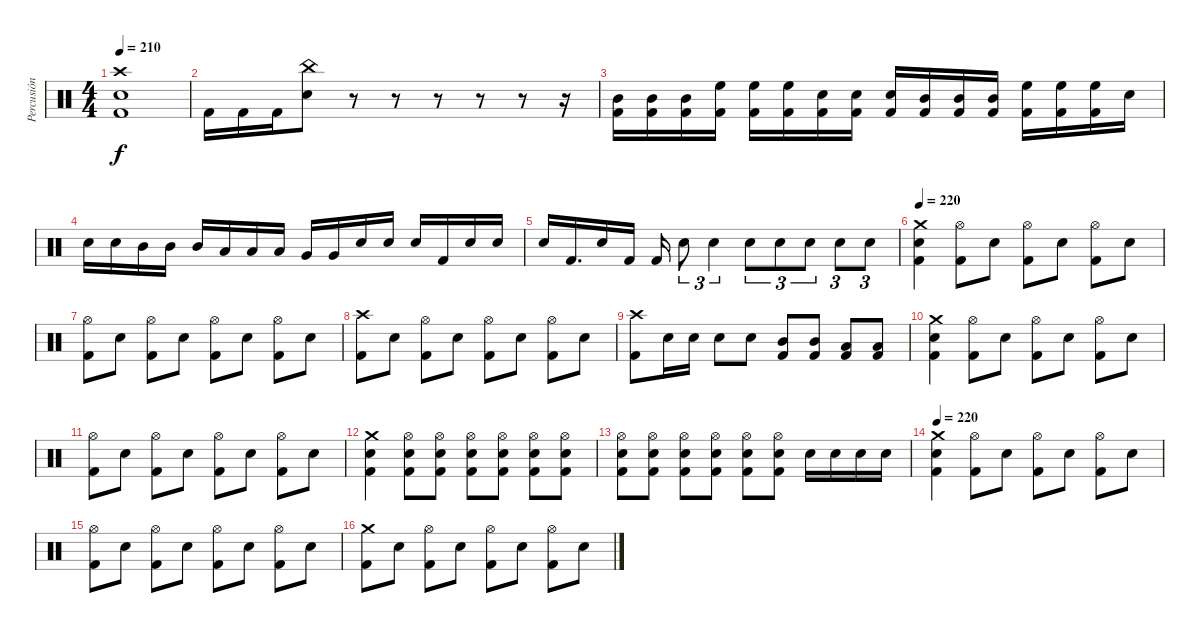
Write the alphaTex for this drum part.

\track ("Percusión" "Percusión") {instrument percussion}
\staff {score}
\articulation defaults
\ts (4 4)
\tempo 210
\clef neutral
\ks c
("Crash high (hit)" "Electric Snare (hit)" "Kick (hit) 2").1{dy f} |
"Kick (hit) 2".16 "Kick (hit) 2".16 "Kick (hit) 2".16 ("China (hit)" "Electric Snare (hit)").8 r.8 r.8 r.8 r.8 r.8 r.16 |
("Mid Tom (hit)" "Kick (hit) 2").16 ("Mid Tom (hit)" "Kick (hit) 2").16 ("Mid Tom (hit)" "Kick (hit) 2").16 ("High Floor Tom (hit)" "Kick (hit) 2").16 ("High Floor Tom (hit)" "Kick (hit) 2").16 ("High Floor Tom (hit)" "Kick (hit) 2").16 ("Electric Snare (hit)" "Kick (hit) 2").16 ("Electric Snare (hit)" "Kick (hit) 2").16 ("Electric Snare (hit)" "Kick (hit) 2").16 ("Mid Tom (hit)" "Kick (hit) 2").16 ("Mid Tom (hit)" "Kick (hit) 2").16 ("Mid Tom (hit)" "Kick (hit) 2").16 ("High Floor Tom (hit)" "Kick (hit) 2").16 ("High Floor Tom (hit)" "Kick (hit) 2").16 ("High Floor Tom (hit)" "Kick (hit) 2").16 "Electric Snare (hit)".16 |
"Electric Snare (hit)".16 "Electric Snare (hit)".16 "Mid Tom (hit)".16 "Mid Tom (hit)".16 "Mid Tom (hit)".16 "Low Tom (hit)".16 "Low Tom (hit)".16 "Low Tom (hit)".16 "Very Low Tom (hit)".16 "Very Low Tom (hit)".16 "Electric Snare (hit)".16 "Electric Snare (hit)".16 "Electric Snare (hit)".16 "Kick (hit) 2".16 "Electric Snare (hit)".16 "Electric Snare (hit)".16 |
"Electric Snare (hit)".16 "Kick (hit) 2".16{d} "Electric Snare (hit)".16 "Kick (hit) 2".16 "Kick (hit) 2".16 "Electric Snare (hit)".8{tu (3 2)} "Electric Snare (hit)".4{tu (3 2)} "Electric Snare (hit)".8{tu (3 2)} "Electric Snare (hit)".8{tu (3 2)} "Electric Snare (hit)".8{tu (3 2)} "Electric Snare (hit)".8{tu (3 2)} "Electric Snare (hit)".8{tu (3 2)} |
\tempo 220
("Crash medium (hit)" "Electric Snare (hit)" "Kick (hit) 2").4 ("Hi-Hat (open)" "Kick (hit) 2").8 "Electric Snare (hit)".8 ("Hi-Hat (open)" "Kick (hit) 2").8 "Electric Snare (hit)".8 ("Hi-Hat (open)" "Kick (hit) 2").8 "Electric Snare (hit)".8 |
("Hi-Hat (open)" "Kick (hit) 2").8 "Electric Snare (hit)".8 ("Hi-Hat (open)" "Kick (hit) 2").8 "Electric Snare (hit)".8 ("Hi-Hat (open)" "Kick (hit) 2").8 "Electric Snare (hit)".8 ("Hi-Hat (open)" "Kick (hit) 2").8 "Electric Snare (hit)".8 |
("Crash high (hit)" "Kick (hit) 2").8 "Electric Snare (hit)".8 ("Hi-Hat (open)" "Kick (hit) 2").8 "Electric Snare (hit)".8 ("Hi-Hat (open)" "Kick (hit) 2").8 "Electric Snare (hit)".8 ("Hi-Hat (open)" "Kick (hit) 2").8 "Electric Snare (hit)".8 |
("Crash high (hit)" "Kick (hit) 2").8 "Electric Snare (hit)".16 "Electric Snare (hit)".16 "Electric Snare (hit)".8 "Electric Snare (hit)".8 ("Mid Tom (hit)" "Kick (hit) 2").8 ("Mid Tom (hit)" "Kick (hit) 2").8 ("Low Tom (hit)" "Kick (hit) 2").8 ("Low Tom (hit)" "Kick (hit) 2").8 |
("Crash medium (hit)" "Electric Snare (hit)" "Kick (hit) 2").4 ("Hi-Hat (open)" "Kick (hit) 2").8 "Electric Snare (hit)".8 ("Hi-Hat (open)" "Kick (hit) 2").8 "Electric Snare (hit)".8 ("Hi-Hat (open)" "Kick (hit) 2").8 "Electric Snare (hit)".8 |
("Hi-Hat (open)" "Kick (hit) 2").8 "Electric Snare (hit)".8 ("Hi-Hat (open)" "Kick (hit) 2").8 "Electric Snare (hit)".8 ("Hi-Hat (open)" "Kick (hit) 2").8 "Electric Snare (hit)".8 ("Hi-Hat (open)" "Kick (hit) 2").8 "Electric Snare (hit)".8 |
("Crash medium (hit)" "Electric Snare (hit)" "Kick (hit) 2").4 ("Hi-Hat (open)" "Electric Snare (hit)" "Kick (hit) 2").8 ("Hi-Hat (open)" "Electric Snare (hit)" "Kick (hit) 2").8 ("Hi-Hat (open)" "Electric Snare (hit)" "Kick (hit) 2").8 ("Hi-Hat (open)" "Electric Snare (hit)" "Kick (hit) 2").8 ("Hi-Hat (open)" "Electric Snare (hit)" "Kick (hit) 2").8 ("Hi-Hat (open)" "Electric Snare (hit)" "Kick (hit) 2").8 |
("Hi-Hat (open)" "Electric Snare (hit)" "Kick (hit) 2").8 ("Hi-Hat (open)" "Electric Snare (hit)" "Kick (hit) 2").8 ("Hi-Hat (open)" "Electric Snare (hit)" "Kick (hit) 2").8 ("Hi-Hat (open)" "Electric Snare (hit)" "Kick (hit) 2").8 ("Hi-Hat (open)" "Electric Snare (hit)" "Kick (hit) 2").8 ("Hi-Hat (open)" "Electric Snare (hit)" "Kick (hit) 2").8 "Electric Snare (hit)".16 "Electric Snare (hit)".16 "Electric Snare (hit)".16 "Electric Snare (hit)".16 |
\tempo 220
("Crash medium (hit)" "Electric Snare (hit)" "Kick (hit) 2").4 ("Hi-Hat (open)" "Kick (hit) 2").8 "Electric Snare (hit)".8 ("Hi-Hat (open)" "Kick (hit) 2").8 "Electric Snare (hit)".8 ("Hi-Hat (open)" "Kick (hit) 2").8 "Electric Snare (hit)".8 |
("Hi-Hat (open)" "Kick (hit) 2").8 "Electric Snare (hit)".8 ("Hi-Hat (open)" "Kick (hit) 2").8 "Electric Snare (hit)".8 ("Hi-Hat (open)" "Kick (hit) 2").8 "Electric Snare (hit)".8 ("Hi-Hat (open)" "Kick (hit) 2").8 "Electric Snare (hit)".8 |
("Crash medium (hit)" "Kick (hit) 2").8 "Electric Snare (hit)".8 ("Hi-Hat (open)" "Kick (hit) 2").8 "Electric Snare (hit)".8 ("Hi-Hat (open)" "Kick (hit) 2").8 "Electric Snare (hit)".8 ("Hi-Hat (open)" "Kick (hit) 2").8 "Electric Snare (hit)".8
